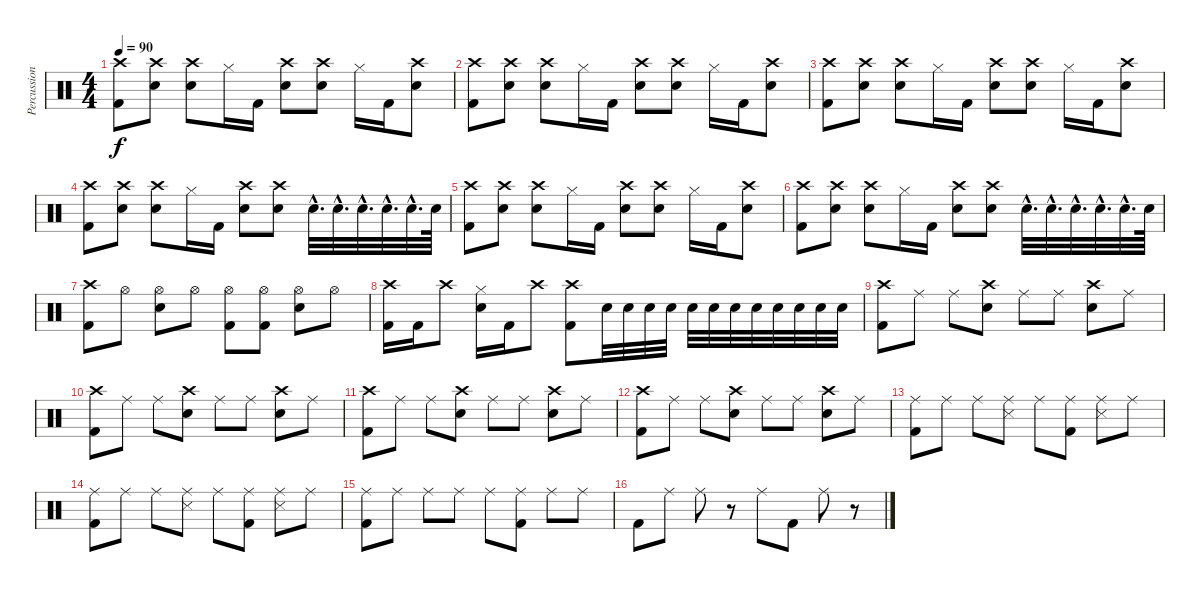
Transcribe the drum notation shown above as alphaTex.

\track ("Percussion" "Percussion") {instrument percussion}
\staff {score}
\articulation defaults
\ts (4 4)
\tempo 90
\clef neutral
\ks c
("Crash high (hit)" "Kick (hit) 2").8{dy f} ("Crash high (hit)" "Snare (hit) 2").8 ("Crash high (hit)" "Snare (hit) 2").8 "Hi-Hat (closed)".16 "Kick (hit) 2".16 ("Crash high (hit)" "Snare (hit) 2").8 ("Crash high (hit)" "Snare (hit) 2").8 "Hi-Hat (closed)".16 "Kick (hit) 2".16 ("Crash high (hit)" "Snare (hit) 2").8 |
("Crash high (hit)" "Kick (hit) 2").8 ("Crash high (hit)" "Snare (hit) 2").8 ("Crash high (hit)" "Snare (hit) 2").8 "Hi-Hat (closed)".16 "Kick (hit) 2".16 ("Crash high (hit)" "Snare (hit) 2").8 ("Crash high (hit)" "Snare (hit) 2").8 "Hi-Hat (closed)".16 "Kick (hit) 2".16 ("Crash high (hit)" "Snare (hit) 2").8 |
("Crash high (hit)" "Kick (hit) 2").8 ("Crash high (hit)" "Snare (hit) 2").8 ("Crash high (hit)" "Snare (hit) 2").8 "Hi-Hat (closed)".16 "Kick (hit) 2".16 ("Crash high (hit)" "Snare (hit) 2").8 ("Crash high (hit)" "Snare (hit) 2").8 "Hi-Hat (closed)".16 "Kick (hit) 2".16 ("Crash high (hit)" "Snare (hit) 2").8 |
("Crash high (hit)" "Kick (hit) 2").8 ("Crash high (hit)" "Snare (hit) 2").8 ("Crash high (hit)" "Snare (hit) 2").8 "Hi-Hat (closed)".16 "Kick (hit) 2".16 ("Crash high (hit)" "Snare (hit) 2").8 ("Crash high (hit)" "Snare (hit) 2").8 "Snare (hit) 2"{hac}.32{d} "Snare (hit) 2"{hac}.32{d} "Snare (hit) 2"{hac}.32{d} "Snare (hit) 2"{hac}.32{d} "Snare (hit) 2"{hac}.32{d} "Snare (hit) 2".64 |
("Crash high (hit)" "Kick (hit) 2").8 ("Crash high (hit)" "Snare (hit) 2").8 ("Crash high (hit)" "Snare (hit) 2").8 "Hi-Hat (closed)".16 "Kick (hit) 2".16 ("Crash high (hit)" "Snare (hit) 2").8 ("Crash high (hit)" "Snare (hit) 2").8 "Hi-Hat (closed)".16 "Kick (hit) 2".16 ("Crash high (hit)" "Snare (hit) 2").8 |
("Crash high (hit)" "Kick (hit) 2").8 ("Crash high (hit)" "Snare (hit) 2").8 ("Crash high (hit)" "Snare (hit) 2").8 "Hi-Hat (closed)".16 "Kick (hit) 2".16 ("Crash high (hit)" "Snare (hit) 2").8 ("Crash high (hit)" "Snare (hit) 2").8 "Snare (hit) 2"{hac}.32{d} "Snare (hit) 2"{hac}.32{d} "Snare (hit) 2"{hac}.32{d} "Snare (hit) 2"{hac}.32{d} "Snare (hit) 2"{hac}.32{d} "Snare (hit) 2".64 |
("Crash high (hit)" "Kick (hit) 2").8 "Hi-Hat (open)".8 ("Hi-Hat (open)" "Snare (hit) 2").8 "Hi-Hat (open)".8 ("Hi-Hat (open)" "Kick (hit) 2").8 ("Hi-Hat (open)" "Kick (hit) 2").8 ("Hi-Hat (open)" "Snare (hit) 2").8 "Hi-Hat (open)".8 |
("Crash high (hit)" "Kick (hit) 2").16 "Kick (hit) 2".16 "Crash high (hit)".8 ("Hi-Hat (closed)" "Snare (hit) 2").16 "Kick (hit) 2".16 "Crash high (hit)".8 ("Crash high (hit)" "Kick (hit) 2").8 "Snare (hit) 2".32 "Snare (hit) 2".32 "Snare (hit) 2".32 "Snare (hit) 2".32 "Snare (hit) 2".32 "Snare (hit) 2".32 "Snare (hit) 2".32 "Snare (hit) 2".32 "Snare (hit) 2".32 "Snare (hit) 2".32 "Snare (hit) 2".32 "Snare (hit) 2".32 |
("Crash high (hit)" "Kick (hit) 2").8 "Ride (middle)".8 "Ride (middle)".8 ("Crash high (hit)" "Snare (hit) 2").8 "Ride (middle)".8 "Ride (middle)".8 ("Crash high (hit)" "Snare (hit) 2").8 "Ride (middle)".8 |
("Crash high (hit)" "Kick (hit) 2").8 "Ride (middle)".8 "Ride (middle)".8 ("Crash high (hit)" "Snare (hit) 2").8 "Ride (middle)".8 "Ride (middle)".8 ("Crash high (hit)" "Snare (hit) 2").8 "Ride (middle)".8 |
("Crash high (hit)" "Kick (hit) 2").8 "Ride (middle)".8 "Ride (middle)".8 ("Crash high (hit)" "Snare (hit) 2").8 "Ride (middle)".8 "Ride (middle)".8 ("Crash high (hit)" "Snare (hit) 2").8 "Ride (middle)".8 |
("Crash high (hit)" "Kick (hit) 2").8 "Ride (middle)".8 "Ride (middle)".8 ("Crash high (hit)" "Snare (hit) 2").8 "Ride (middle)".8 "Ride (middle)".8 ("Crash high (hit)" "Snare (hit) 2").8 "Ride (middle)".8 |
("Ride (middle)" "Kick (hit) 2").8 "Ride (middle)".8 "Ride (middle)".8 ("Ride (middle)" "Snare (side stick) 3").8 "Ride (middle)".8 ("Ride (middle)" "Kick (hit) 2").8 ("Ride (middle)" "Snare (side stick) 3").8 "Ride (middle)".8 |
("Ride (middle)" "Kick (hit) 2").8 "Ride (middle)".8 "Ride (middle)".8 ("Ride (middle)" "Snare (side stick) 3").8 "Ride (middle)".8 ("Ride (middle)" "Kick (hit) 2").8 ("Ride (middle)" "Snare (side stick) 3").8 "Ride (middle)".8 |
("Ride (middle)" "Kick (hit) 2").8 "Ride (middle)".8 "Ride (middle)".8 "Ride (middle)".8 "Ride (middle)".8 ("Ride (middle)" "Kick (hit) 2").8 "Ride (middle)".8 "Ride (middle)".8 |
"Kick (hit) 2".8 "Ride (middle)".8 "Ride (middle)".8 r.8 "Ride (middle)".8 "Kick (hit) 2".8 "Ride (middle)".8 r.8
